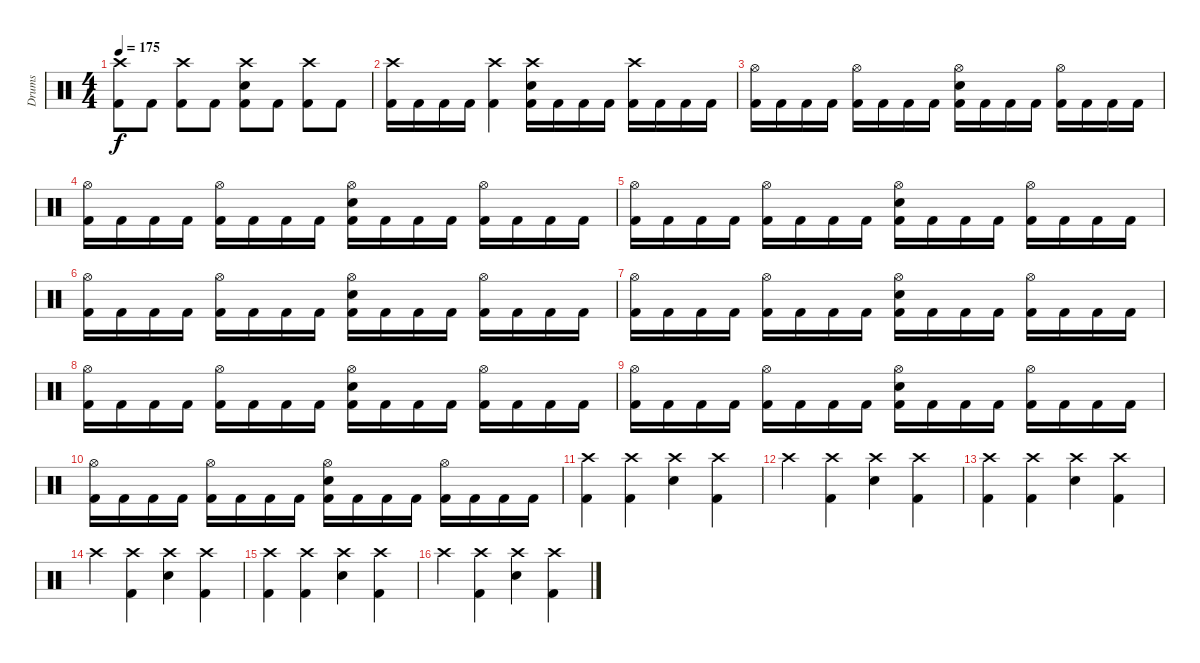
\track ("Drums" "Drums") {instrument percussion}
\staff {score}
\articulation defaults
\ts (4 4)
\tempo 175
\clef neutral
\ks c
("Crash high (hit)" "Kick (hit) 2").8{dy f} "Kick (hit) 2".8 ("Crash high (hit)" "Kick (hit) 2").8 "Kick (hit) 2".8 ("Crash high (hit)" "Snare (hit) 2" "Kick (hit) 2").8 "Kick (hit) 2".8 ("Crash high (hit)" "Kick (hit) 2").8 "Kick (hit) 2".8 |
("Crash high (hit)" "Kick (hit) 2").16 "Kick (hit) 2".16 "Kick (hit) 2".16 "Kick (hit) 2".16 ("Crash high (hit)" "Kick (hit) 2").4 ("Crash high (hit)" "Snare (hit) 2" "Kick (hit) 2").16 "Kick (hit) 2".16 "Kick (hit) 2".16 "Kick (hit) 2".16 ("Crash high (hit)" "Kick (hit) 2").16 "Kick (hit) 2".16 "Kick (hit) 2".16 "Kick (hit) 2".16 |
("Hi-Hat (open)" "Kick (hit) 2").16 "Kick (hit) 2".16 "Kick (hit) 2".16 "Kick (hit) 2".16 ("Hi-Hat (open)" "Kick (hit) 2").16 "Kick (hit) 2".16 "Kick (hit) 2".16 "Kick (hit) 2".16 ("Hi-Hat (open)" "Snare (hit) 2" "Kick (hit) 2").16 "Kick (hit) 2".16 "Kick (hit) 2".16 "Kick (hit) 2".16 ("Hi-Hat (open)" "Kick (hit) 2").16 "Kick (hit) 2".16 "Kick (hit) 2".16 "Kick (hit) 2".16 |
("Hi-Hat (open)" "Kick (hit) 2").16 "Kick (hit) 2".16 "Kick (hit) 2".16 "Kick (hit) 2".16 ("Hi-Hat (open)" "Kick (hit) 2").16 "Kick (hit) 2".16 "Kick (hit) 2".16 "Kick (hit) 2".16 ("Hi-Hat (open)" "Snare (hit) 2" "Kick (hit) 2").16 "Kick (hit) 2".16 "Kick (hit) 2".16 "Kick (hit) 2".16 ("Hi-Hat (open)" "Kick (hit) 2").16 "Kick (hit) 2".16 "Kick (hit) 2".16 "Kick (hit) 2".16 |
("Hi-Hat (open)" "Kick (hit) 2").16 "Kick (hit) 2".16 "Kick (hit) 2".16 "Kick (hit) 2".16 ("Hi-Hat (open)" "Kick (hit) 2").16 "Kick (hit) 2".16 "Kick (hit) 2".16 "Kick (hit) 2".16 ("Hi-Hat (open)" "Snare (hit) 2" "Kick (hit) 2").16 "Kick (hit) 2".16 "Kick (hit) 2".16 "Kick (hit) 2".16 ("Hi-Hat (open)" "Kick (hit) 2").16 "Kick (hit) 2".16 "Kick (hit) 2".16 "Kick (hit) 2".16 |
("Hi-Hat (open)" "Kick (hit) 2").16 "Kick (hit) 2".16 "Kick (hit) 2".16 "Kick (hit) 2".16 ("Hi-Hat (open)" "Kick (hit) 2").16 "Kick (hit) 2".16 "Kick (hit) 2".16 "Kick (hit) 2".16 ("Hi-Hat (open)" "Snare (hit) 2" "Kick (hit) 2").16 "Kick (hit) 2".16 "Kick (hit) 2".16 "Kick (hit) 2".16 ("Hi-Hat (open)" "Kick (hit) 2").16 "Kick (hit) 2".16 "Kick (hit) 2".16 "Kick (hit) 2".16 |
("Hi-Hat (open)" "Kick (hit) 2").16 "Kick (hit) 2".16 "Kick (hit) 2".16 "Kick (hit) 2".16 ("Hi-Hat (open)" "Kick (hit) 2").16 "Kick (hit) 2".16 "Kick (hit) 2".16 "Kick (hit) 2".16 ("Hi-Hat (open)" "Snare (hit) 2" "Kick (hit) 2").16 "Kick (hit) 2".16 "Kick (hit) 2".16 "Kick (hit) 2".16 ("Hi-Hat (open)" "Kick (hit) 2").16 "Kick (hit) 2".16 "Kick (hit) 2".16 "Kick (hit) 2".16 |
("Hi-Hat (open)" "Kick (hit) 2").16 "Kick (hit) 2".16 "Kick (hit) 2".16 "Kick (hit) 2".16 ("Hi-Hat (open)" "Kick (hit) 2").16 "Kick (hit) 2".16 "Kick (hit) 2".16 "Kick (hit) 2".16 ("Hi-Hat (open)" "Snare (hit) 2" "Kick (hit) 2").16 "Kick (hit) 2".16 "Kick (hit) 2".16 "Kick (hit) 2".16 ("Hi-Hat (open)" "Kick (hit) 2").16 "Kick (hit) 2".16 "Kick (hit) 2".16 "Kick (hit) 2".16 |
("Hi-Hat (open)" "Kick (hit) 2").16 "Kick (hit) 2".16 "Kick (hit) 2".16 "Kick (hit) 2".16 ("Hi-Hat (open)" "Kick (hit) 2").16 "Kick (hit) 2".16 "Kick (hit) 2".16 "Kick (hit) 2".16 ("Hi-Hat (open)" "Snare (hit) 2" "Kick (hit) 2").16 "Kick (hit) 2".16 "Kick (hit) 2".16 "Kick (hit) 2".16 ("Hi-Hat (open)" "Kick (hit) 2").16 "Kick (hit) 2".16 "Kick (hit) 2".16 "Kick (hit) 2".16 |
("Hi-Hat (open)" "Kick (hit) 2").16 "Kick (hit) 2".16 "Kick (hit) 2".16 "Kick (hit) 2".16 ("Hi-Hat (open)" "Kick (hit) 2").16 "Kick (hit) 2".16 "Kick (hit) 2".16 "Kick (hit) 2".16 ("Hi-Hat (open)" "Snare (hit) 2" "Kick (hit) 2").16 "Kick (hit) 2".16 "Kick (hit) 2".16 "Kick (hit) 2".16 ("Hi-Hat (open)" "Kick (hit) 2").16 "Kick (hit) 2".16 "Kick (hit) 2".16 "Kick (hit) 2".16 |
("Crash high (hit)" "Kick (hit) 2").4 ("Crash high (hit)" "Kick (hit) 2").4 ("Crash high (hit)" "Snare (hit) 2").4 ("Crash high (hit)" "Kick (hit) 2").4 |
"Crash high (hit)".4 ("Crash high (hit)" "Kick (hit) 2").4 ("Crash high (hit)" "Snare (hit) 2").4 ("Crash high (hit)" "Kick (hit) 2").4 |
("Crash high (hit)" "Kick (hit) 2").4 ("Crash high (hit)" "Kick (hit) 2").4 ("Crash high (hit)" "Snare (hit) 2").4 ("Crash high (hit)" "Kick (hit) 2").4 |
"Crash high (hit)".4 ("Crash high (hit)" "Kick (hit) 2").4 ("Crash high (hit)" "Snare (hit) 2").4 ("Crash high (hit)" "Kick (hit) 2").4 |
("Crash high (hit)" "Kick (hit) 2").4 ("Crash high (hit)" "Kick (hit) 2").4 ("Crash high (hit)" "Snare (hit) 2").4 ("Crash high (hit)" "Kick (hit) 2").4 |
"Crash high (hit)".4 ("Crash high (hit)" "Kick (hit) 2").4 ("Crash high (hit)" "Snare (hit) 2").4 ("Crash high (hit)" "Kick (hit) 2").4
